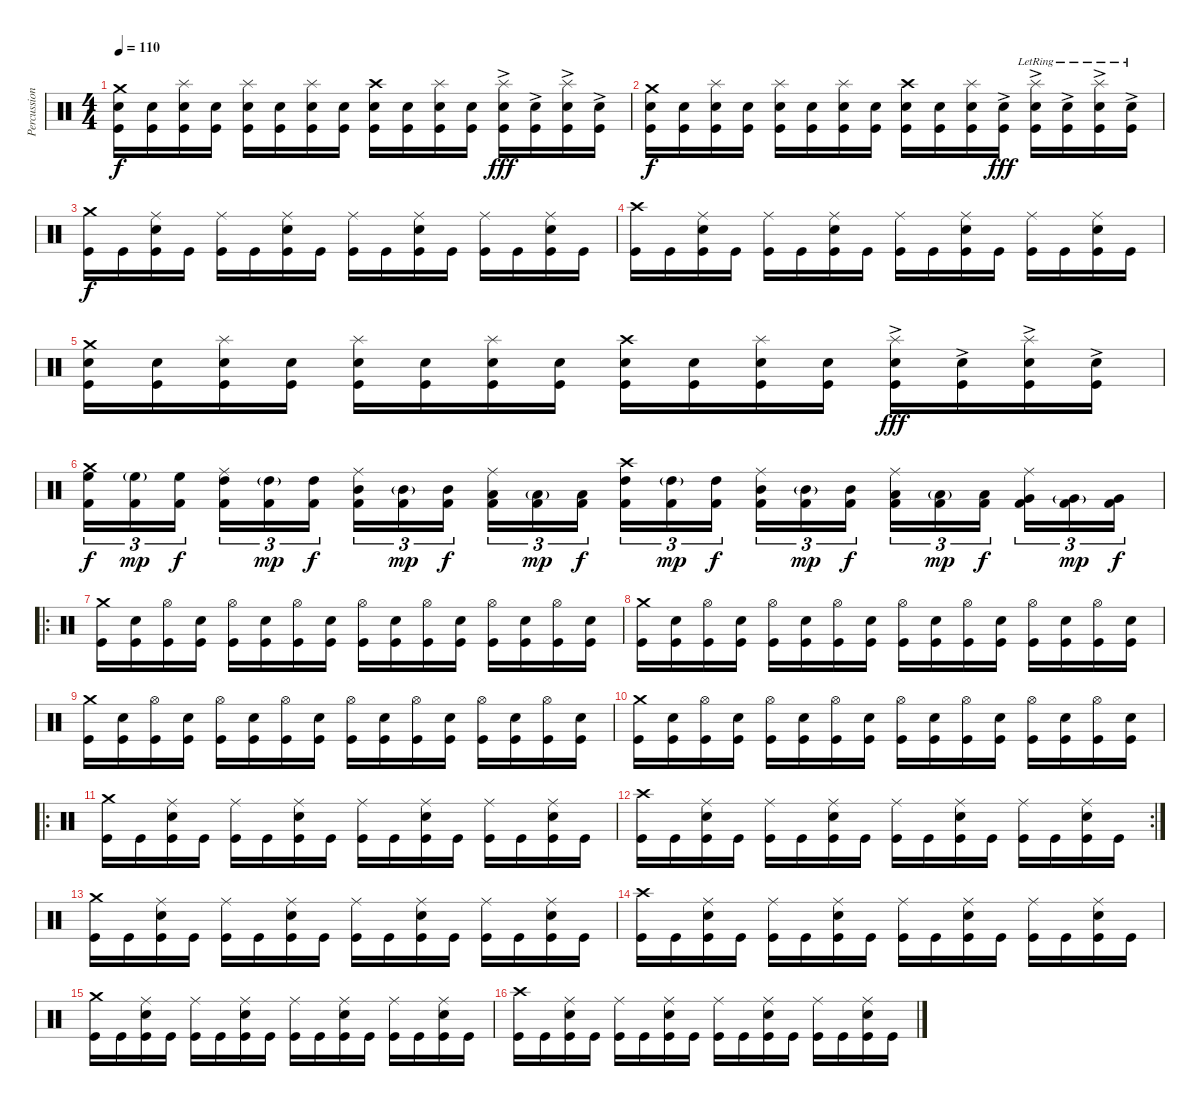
\track ("Percussion" "Percussion") {instrument percussion}
\staff {score}
\articulation defaults
\ts (4 4)
\tempo 110
\clef neutral
\ks c
("Crash medium (hit)" "Electric Snare (hit)" "Kick (hit)").16{dy f} ("Electric Snare (hit)" "Kick (hit)").16 ("Splash (hit)" "Electric Snare (hit)" "Kick (hit)").16 ("Electric Snare (hit)" "Kick (hit)").16 ("Splash (hit)" "Electric Snare (hit)" "Kick (hit)").16 ("Electric Snare (hit)" "Kick (hit)").16 ("Splash (hit)" "Electric Snare (hit)" "Kick (hit)").16 ("Electric Snare (hit)" "Kick (hit)").16 ("Crash high (hit)" "Electric Snare (hit)" "Kick (hit)").16 ("Electric Snare (hit)" "Kick (hit)").16 ("Splash (hit)" "Electric Snare (hit)" "Kick (hit)").16 ("Electric Snare (hit)" "Kick (hit)").16 ("Splash (hit)" "Electric Snare (hit)"{ac} "Kick (hit)").16{dy fff} ("Electric Snare (hit)"{ac} "Kick (hit)").16 ("Splash (hit)" "Electric Snare (hit)"{ac} "Kick (hit)").16 ("Electric Snare (hit)"{ac} "Kick (hit)").16 |
("Crash medium (hit)" "Electric Snare (hit)" "Kick (hit)").16{dy f} ("Electric Snare (hit)" "Kick (hit)").16 ("Splash (hit)" "Electric Snare (hit)" "Kick (hit)").16 ("Electric Snare (hit)" "Kick (hit)").16 ("Splash (hit)" "Electric Snare (hit)" "Kick (hit)").16 ("Electric Snare (hit)" "Kick (hit)").16 ("Splash (hit)" "Electric Snare (hit)" "Kick (hit)").16 ("Electric Snare (hit)" "Kick (hit)").16 ("Crash high (hit)" "Electric Snare (hit)" "Kick (hit)").16 ("Electric Snare (hit)" "Kick (hit)").16 ("Splash (hit)" "Electric Snare (hit)" "Kick (hit)").16 ("Electric Snare (hit)"{ac} "Kick (hit)").16{dy fff} ("Splash (hit)" "Electric Snare (hit)"{ac lr} "Kick (hit)").16 ("Electric Snare (hit)"{ac lr} "Kick (hit)").16 ("Splash (hit)" "Electric Snare (hit)"{ac lr} "Kick (hit)").16 ("Electric Snare (hit)"{ac lr} "Kick (hit)").16 |
("Crash medium (hit)" "Kick (hit)").16{dy f} "Kick (hit)".16 ("Ride (middle)" "Electric Snare (hit)" "Kick (hit)").16 "Kick (hit)".16 ("Ride (middle)" "Kick (hit)").16 "Kick (hit)".16 ("Ride (middle)" "Electric Snare (hit)" "Kick (hit)").16 "Kick (hit)".16 ("Ride (middle)" "Kick (hit)").16 "Kick (hit)".16 ("Ride (middle)" "Electric Snare (hit)" "Kick (hit)").16 "Kick (hit)".16 ("Ride (middle)" "Kick (hit)").16 "Kick (hit)".16 ("Ride (middle)" "Electric Snare (hit)" "Kick (hit)").16 "Kick (hit)".16 |
("Crash high (hit)" "Kick (hit)").16 "Kick (hit)".16 ("Ride (middle)" "Electric Snare (hit)" "Kick (hit)").16 "Kick (hit)".16 ("Ride (middle)" "Kick (hit)").16 "Kick (hit)".16 ("Ride (middle)" "Electric Snare (hit)" "Kick (hit)").16 "Kick (hit)".16 ("Ride (middle)" "Kick (hit)").16 "Kick (hit)".16 ("Ride (middle)" "Electric Snare (hit)" "Kick (hit)").16 "Kick (hit)".16 ("Ride (middle)" "Kick (hit)").16 "Kick (hit)".16 ("Ride (middle)" "Electric Snare (hit)" "Kick (hit)").16 "Kick (hit)".16 |
("Crash medium (hit)" "Electric Snare (hit)" "Kick (hit)").16 ("Electric Snare (hit)" "Kick (hit)").16 ("Splash (hit)" "Electric Snare (hit)" "Kick (hit)").16 ("Electric Snare (hit)" "Kick (hit)").16 ("Splash (hit)" "Electric Snare (hit)" "Kick (hit)").16 ("Electric Snare (hit)" "Kick (hit)").16 ("Splash (hit)" "Electric Snare (hit)" "Kick (hit)").16 ("Electric Snare (hit)" "Kick (hit)").16 ("Crash high (hit)" "Electric Snare (hit)" "Kick (hit)").16 ("Electric Snare (hit)" "Kick (hit)").16 ("Splash (hit)" "Electric Snare (hit)" "Kick (hit)").16 ("Electric Snare (hit)" "Kick (hit)").16 ("Splash (hit)" "Electric Snare (hit)"{ac} "Kick (hit)").16{dy fff} ("Electric Snare (hit)"{ac} "Kick (hit)").16 ("Splash (hit)" "Electric Snare (hit)"{ac} "Kick (hit)").16 ("Electric Snare (hit)"{ac} "Kick (hit)").16 |
("Crash medium (hit)" "High Floor Tom (hit)" "Kick (hit) 2").16{tu (3 2) dy f} ("High Floor Tom (hit)"{g} "Kick (hit) 2").16{tu (3 2) dy mp} ("High Floor Tom (hit)" "Kick (hit) 2").16{tu (3 2) dy f} ("Ride (middle)" "High Tom (hit)" "Kick (hit) 2").16{tu (3 2)} ("High Tom (hit)"{g} "Kick (hit) 2").16{tu (3 2) dy mp} ("High Tom (hit)" "Kick (hit) 2").16{tu (3 2) dy f} ("Ride (middle)" "Mid Tom (hit)" "Kick (hit) 2").16{tu (3 2)} ("Mid Tom (hit)"{g} "Kick (hit) 2").16{tu (3 2) dy mp} ("Mid Tom (hit)" "Kick (hit) 2").16{tu (3 2) dy f} ("Ride (middle)" "Low Tom (hit)" "Kick (hit) 2").16{tu (3 2)} ("Low Tom (hit)"{g} "Kick (hit) 2").16{tu (3 2) dy mp} ("Low Tom (hit)" "Kick (hit) 2").16{tu (3 2) dy f} ("Crash high (hit)" "High Tom (hit)" "Kick (hit) 2").16{tu (3 2)} ("High Tom (hit)"{g} "Kick (hit) 2").16{tu (3 2) dy mp} ("High Tom (hit)" "Kick (hit) 2").16{tu (3 2) dy f} ("Ride (middle)" "Mid Tom (hit)" "Kick (hit) 2").16{tu (3 2)} ("Mid Tom (hit)"{g} "Kick (hit) 2").16{tu (3 2) dy mp} ("Mid Tom (hit)" "Kick (hit) 2").16{tu (3 2) dy f} ("Ride (middle)" "Low Tom (hit)" "Kick (hit) 2").16{tu (3 2)} ("Low Tom (hit)"{g} "Kick (hit) 2").16{tu (3 2) dy mp} ("Low Tom (hit)" "Kick (hit) 2").16{tu (3 2) dy f} ("Ride (middle)" "Very Low Tom (hit)" "Kick (hit) 2").16{tu (3 2)} ("Very Low Tom (hit)"{g} "Kick (hit) 2").16{tu (3 2) dy mp} ("Very Low Tom (hit)" "Kick (hit) 2").16{tu (3 2) dy f} |
\ro
("Crash medium (hit)" "Kick (hit)").16 ("Electric Snare (hit)" "Kick (hit)").16 ("Hi-Hat (open)" "Kick (hit)").16 ("Electric Snare (hit)" "Kick (hit)").16 ("Hi-Hat (open)" "Kick (hit)").16 ("Electric Snare (hit)" "Kick (hit)").16 ("Hi-Hat (open)" "Kick (hit)").16 ("Electric Snare (hit)" "Kick (hit)").16 ("Hi-Hat (open)" "Kick (hit)").16 ("Electric Snare (hit)" "Kick (hit)").16 ("Hi-Hat (open)" "Kick (hit)").16 ("Electric Snare (hit)" "Kick (hit)").16 ("Hi-Hat (open)" "Kick (hit)").16 ("Electric Snare (hit)" "Kick (hit)").16 ("Hi-Hat (open)" "Kick (hit)").16 ("Electric Snare (hit)" "Kick (hit)").16 |
("Crash medium (hit)" "Kick (hit)").16 ("Electric Snare (hit)" "Kick (hit)").16 ("Hi-Hat (open)" "Kick (hit)").16 ("Electric Snare (hit)" "Kick (hit)").16 ("Hi-Hat (open)" "Kick (hit)").16 ("Electric Snare (hit)" "Kick (hit)").16 ("Hi-Hat (open)" "Kick (hit)").16 ("Electric Snare (hit)" "Kick (hit)").16 ("Hi-Hat (open)" "Kick (hit)").16 ("Electric Snare (hit)" "Kick (hit)").16 ("Hi-Hat (open)" "Kick (hit)").16 ("Electric Snare (hit)" "Kick (hit)").16 ("Hi-Hat (open)" "Kick (hit)").16 ("Electric Snare (hit)" "Kick (hit)").16 ("Hi-Hat (open)" "Kick (hit)").16 ("Electric Snare (hit)" "Kick (hit)").16 |
("Crash medium (hit)" "Kick (hit)").16 ("Electric Snare (hit)" "Kick (hit)").16 ("Hi-Hat (open)" "Kick (hit)").16 ("Electric Snare (hit)" "Kick (hit)").16 ("Hi-Hat (open)" "Kick (hit)").16 ("Electric Snare (hit)" "Kick (hit)").16 ("Hi-Hat (open)" "Kick (hit)").16 ("Electric Snare (hit)" "Kick (hit)").16 ("Hi-Hat (open)" "Kick (hit)").16 ("Electric Snare (hit)" "Kick (hit)").16 ("Hi-Hat (open)" "Kick (hit)").16 ("Electric Snare (hit)" "Kick (hit)").16 ("Hi-Hat (open)" "Kick (hit)").16 ("Electric Snare (hit)" "Kick (hit)").16 ("Hi-Hat (open)" "Kick (hit)").16 ("Electric Snare (hit)" "Kick (hit)").16 |
("Crash medium (hit)" "Kick (hit)").16 ("Electric Snare (hit)" "Kick (hit)").16 ("Hi-Hat (open)" "Kick (hit)").16 ("Electric Snare (hit)" "Kick (hit)").16 ("Hi-Hat (open)" "Kick (hit)").16 ("Electric Snare (hit)" "Kick (hit)").16 ("Hi-Hat (open)" "Kick (hit)").16 ("Electric Snare (hit)" "Kick (hit)").16 ("Hi-Hat (open)" "Kick (hit)").16 ("Electric Snare (hit)" "Kick (hit)").16 ("Hi-Hat (open)" "Kick (hit)").16 ("Electric Snare (hit)" "Kick (hit)").16 ("Hi-Hat (open)" "Kick (hit)").16 ("Electric Snare (hit)" "Kick (hit)").16 ("Hi-Hat (open)" "Kick (hit)").16 ("Electric Snare (hit)" "Kick (hit)").16 |
\ro
("Crash medium (hit)" "Kick (hit)").16 "Kick (hit)".16 ("Ride (middle)" "Electric Snare (hit)" "Kick (hit)").16 "Kick (hit)".16 ("Ride (middle)" "Kick (hit)").16 "Kick (hit)".16 ("Ride (middle)" "Electric Snare (hit)" "Kick (hit)").16 "Kick (hit)".16 ("Ride (middle)" "Kick (hit)").16 "Kick (hit)".16 ("Ride (middle)" "Electric Snare (hit)" "Kick (hit)").16 "Kick (hit)".16 ("Ride (middle)" "Kick (hit)").16 "Kick (hit)".16 ("Ride (middle)" "Electric Snare (hit)" "Kick (hit)").16 "Kick (hit)".16 |
\rc 2
("Crash high (hit)" "Kick (hit)").16 "Kick (hit)".16 ("Ride (middle)" "Electric Snare (hit)" "Kick (hit)").16 "Kick (hit)".16 ("Ride (middle)" "Kick (hit)").16 "Kick (hit)".16 ("Ride (middle)" "Electric Snare (hit)" "Kick (hit)").16 "Kick (hit)".16 ("Ride (middle)" "Kick (hit)").16 "Kick (hit)".16 ("Ride (middle)" "Electric Snare (hit)" "Kick (hit)").16 "Kick (hit)".16 ("Ride (middle)" "Kick (hit)").16 "Kick (hit)".16 ("Ride (middle)" "Electric Snare (hit)" "Kick (hit)").16 "Kick (hit)".16 |
("Crash medium (hit)" "Kick (hit)").16 "Kick (hit)".16 ("Ride (middle)" "Electric Snare (hit)" "Kick (hit)").16 "Kick (hit)".16 ("Ride (middle)" "Kick (hit)").16 "Kick (hit)".16 ("Ride (middle)" "Electric Snare (hit)" "Kick (hit)").16 "Kick (hit)".16 ("Ride (middle)" "Kick (hit)").16 "Kick (hit)".16 ("Ride (middle)" "Electric Snare (hit)" "Kick (hit)").16 "Kick (hit)".16 ("Ride (middle)" "Kick (hit)").16 "Kick (hit)".16 ("Ride (middle)" "Electric Snare (hit)" "Kick (hit)").16 "Kick (hit)".16 |
("Crash high (hit)" "Kick (hit)").16 "Kick (hit)".16 ("Ride (middle)" "Electric Snare (hit)" "Kick (hit)").16 "Kick (hit)".16 ("Ride (middle)" "Kick (hit)").16 "Kick (hit)".16 ("Ride (middle)" "Electric Snare (hit)" "Kick (hit)").16 "Kick (hit)".16 ("Ride (middle)" "Kick (hit)").16 "Kick (hit)".16 ("Ride (middle)" "Electric Snare (hit)" "Kick (hit)").16 "Kick (hit)".16 ("Ride (middle)" "Kick (hit)").16 "Kick (hit)".16 ("Ride (middle)" "Electric Snare (hit)" "Kick (hit)").16 "Kick (hit)".16 |
("Crash medium (hit)" "Kick (hit)").16 "Kick (hit)".16 ("Ride (middle)" "Electric Snare (hit)" "Kick (hit)").16 "Kick (hit)".16 ("Ride (middle)" "Kick (hit)").16 "Kick (hit)".16 ("Ride (middle)" "Electric Snare (hit)" "Kick (hit)").16 "Kick (hit)".16 ("Ride (middle)" "Kick (hit)").16 "Kick (hit)".16 ("Ride (middle)" "Electric Snare (hit)" "Kick (hit)").16 "Kick (hit)".16 ("Ride (middle)" "Kick (hit)").16 "Kick (hit)".16 ("Ride (middle)" "Electric Snare (hit)" "Kick (hit)").16 "Kick (hit)".16 |
("Crash high (hit)" "Kick (hit)").16 "Kick (hit)".16 ("Ride (middle)" "Electric Snare (hit)" "Kick (hit)").16 "Kick (hit)".16 ("Ride (middle)" "Kick (hit)").16 "Kick (hit)".16 ("Ride (middle)" "Electric Snare (hit)" "Kick (hit)").16 "Kick (hit)".16 ("Ride (middle)" "Kick (hit)").16 "Kick (hit)".16 ("Ride (middle)" "Electric Snare (hit)" "Kick (hit)").16 "Kick (hit)".16 ("Ride (middle)" "Kick (hit)").16 "Kick (hit)".16 ("Ride (middle)" "Electric Snare (hit)" "Kick (hit)").16 "Kick (hit)".16
